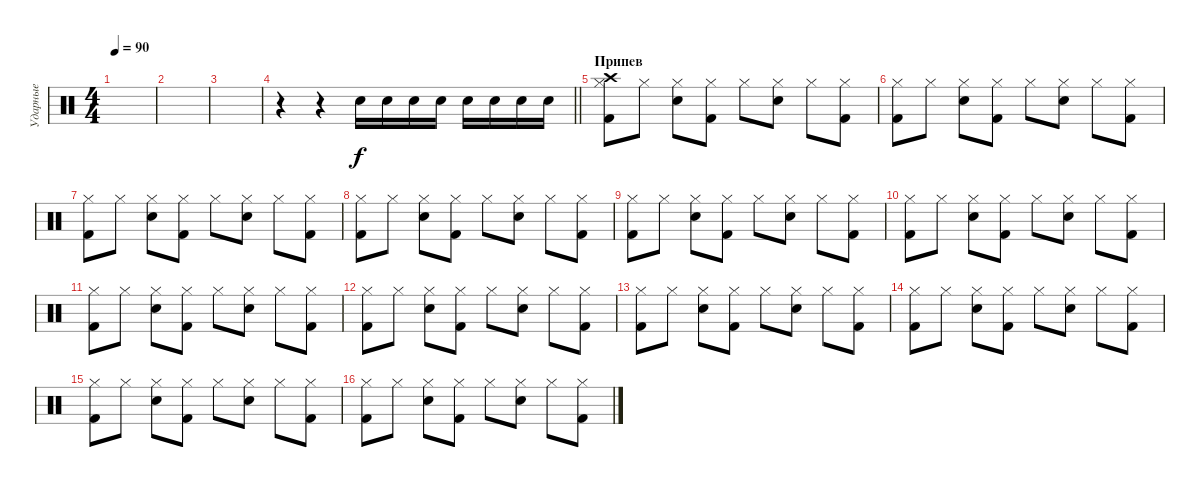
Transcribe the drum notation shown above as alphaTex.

\track ("Ударные" "Ударные") {instrument percussion}
\staff {score}
\articulation defaults
\ts (4 4)
\tempo 90
\clef neutral
\ks c
|
|
|
\barLineRight lightlight
r.4 r.4 "Electric Snare (hit)".16 "Electric Snare (hit)".16 "Electric Snare (hit)".16 "Electric Snare (hit)".16 "Electric Snare (hit)".16 "Electric Snare (hit)".16 "Electric Snare (hit)".16 "Electric Snare (hit)".16 |
\section ("" "Припев")
("Crash high (hit)" "Hi-Hat (closed)" "Kick (hit) 2").8 "Hi-Hat (closed)".8 ("Hi-Hat (closed)" "Electric Snare (hit)").8 ("Hi-Hat (closed)" "Kick (hit) 2").8 "Hi-Hat (closed)".8 ("Hi-Hat (closed)" "Electric Snare (hit)").8 "Hi-Hat (closed)".8 ("Hi-Hat (closed)" "Kick (hit) 2").8 |
("Hi-Hat (closed)" "Kick (hit) 2").8 "Hi-Hat (closed)".8 ("Hi-Hat (closed)" "Electric Snare (hit)").8 ("Hi-Hat (closed)" "Kick (hit) 2").8 "Hi-Hat (closed)".8 ("Hi-Hat (closed)" "Electric Snare (hit)").8 "Hi-Hat (closed)".8 ("Hi-Hat (closed)" "Kick (hit) 2").8 |
("Hi-Hat (closed)" "Kick (hit) 2").8 "Hi-Hat (closed)".8 ("Hi-Hat (closed)" "Electric Snare (hit)").8 ("Hi-Hat (closed)" "Kick (hit) 2").8 "Hi-Hat (closed)".8 ("Hi-Hat (closed)" "Electric Snare (hit)").8 "Hi-Hat (closed)".8 ("Hi-Hat (closed)" "Kick (hit) 2").8 |
("Hi-Hat (closed)" "Kick (hit) 2").8 "Hi-Hat (closed)".8 ("Hi-Hat (closed)" "Electric Snare (hit)").8 ("Hi-Hat (closed)" "Kick (hit) 2").8 "Hi-Hat (closed)".8 ("Hi-Hat (closed)" "Electric Snare (hit)").8 "Hi-Hat (closed)".8 ("Hi-Hat (closed)" "Kick (hit) 2").8 |
("Hi-Hat (closed)" "Kick (hit) 2").8 "Hi-Hat (closed)".8 ("Hi-Hat (closed)" "Electric Snare (hit)").8 ("Hi-Hat (closed)" "Kick (hit) 2").8 "Hi-Hat (closed)".8 ("Hi-Hat (closed)" "Electric Snare (hit)").8 "Hi-Hat (closed)".8 ("Hi-Hat (closed)" "Kick (hit) 2").8 |
("Hi-Hat (closed)" "Kick (hit) 2").8 "Hi-Hat (closed)".8 ("Hi-Hat (closed)" "Electric Snare (hit)").8 ("Hi-Hat (closed)" "Kick (hit) 2").8 "Hi-Hat (closed)".8 ("Hi-Hat (closed)" "Electric Snare (hit)").8 "Hi-Hat (closed)".8 ("Hi-Hat (closed)" "Kick (hit) 2").8 |
("Hi-Hat (closed)" "Kick (hit) 2").8 "Hi-Hat (closed)".8 ("Hi-Hat (closed)" "Electric Snare (hit)").8 ("Hi-Hat (closed)" "Kick (hit) 2").8 "Hi-Hat (closed)".8 ("Hi-Hat (closed)" "Electric Snare (hit)").8 "Hi-Hat (closed)".8 ("Hi-Hat (closed)" "Kick (hit) 2").8 |
("Hi-Hat (closed)" "Kick (hit) 2").8 "Hi-Hat (closed)".8 ("Hi-Hat (closed)" "Electric Snare (hit)").8 ("Hi-Hat (closed)" "Kick (hit) 2").8 "Hi-Hat (closed)".8 ("Hi-Hat (closed)" "Electric Snare (hit)").8 "Hi-Hat (closed)".8 ("Hi-Hat (closed)" "Kick (hit) 2").8 |
("Hi-Hat (closed)" "Kick (hit) 2").8 "Hi-Hat (closed)".8 ("Hi-Hat (closed)" "Electric Snare (hit)").8 ("Hi-Hat (closed)" "Kick (hit) 2").8 "Hi-Hat (closed)".8 ("Hi-Hat (closed)" "Electric Snare (hit)").8 "Hi-Hat (closed)".8 ("Hi-Hat (closed)" "Kick (hit) 2").8 |
("Hi-Hat (closed)" "Kick (hit) 2").8 "Hi-Hat (closed)".8 ("Hi-Hat (closed)" "Electric Snare (hit)").8 ("Hi-Hat (closed)" "Kick (hit) 2").8 "Hi-Hat (closed)".8 ("Hi-Hat (closed)" "Electric Snare (hit)").8 "Hi-Hat (closed)".8 ("Hi-Hat (closed)" "Kick (hit) 2").8 |
("Hi-Hat (closed)" "Kick (hit) 2").8 "Hi-Hat (closed)".8 ("Hi-Hat (closed)" "Electric Snare (hit)").8 ("Hi-Hat (closed)" "Kick (hit) 2").8 "Hi-Hat (closed)".8 ("Hi-Hat (closed)" "Electric Snare (hit)").8 "Hi-Hat (closed)".8 ("Hi-Hat (closed)" "Kick (hit) 2").8 |
("Hi-Hat (closed)" "Kick (hit) 2").8 "Hi-Hat (closed)".8 ("Hi-Hat (closed)" "Electric Snare (hit)").8 ("Hi-Hat (closed)" "Kick (hit) 2").8 "Hi-Hat (closed)".8 ("Hi-Hat (closed)" "Electric Snare (hit)").8 "Hi-Hat (closed)".8 ("Hi-Hat (closed)" "Kick (hit) 2").8
